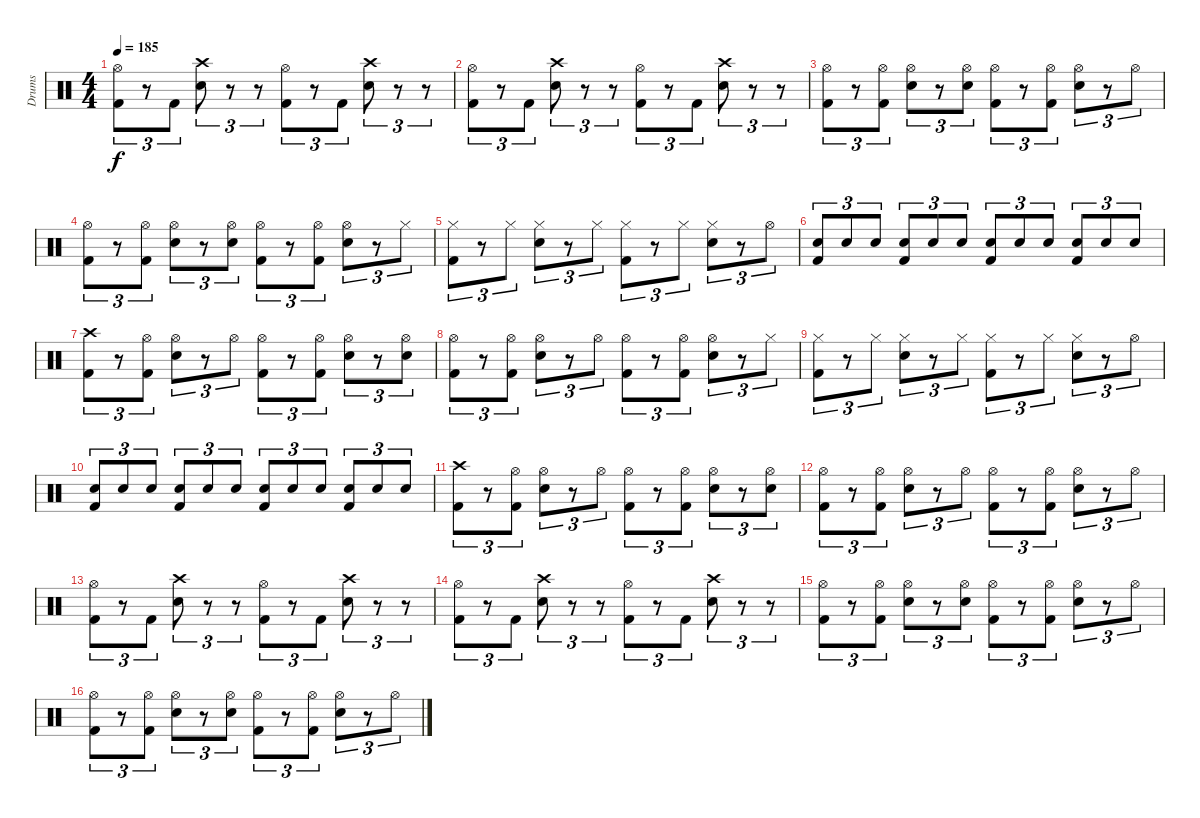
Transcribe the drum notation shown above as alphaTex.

\track ("Drums" "Drums") {instrument percussion}
\staff {score}
\articulation defaults
\ts (4 4)
\tempo 185
\clef neutral
\ks c
("Hi-Hat (open)" "Kick (hit) 2").8{tu (3 2) dy f} r.8{tu (3 2)} "Kick (hit) 2".8{tu (3 2)} ("Crash high (hit)" "Electric Snare (hit)").8{tu (3 2)} r.8{tu (3 2)} r.8{tu (3 2)} ("Hi-Hat (open)" "Kick (hit) 2").8{tu (3 2)} r.8{tu (3 2)} "Kick (hit) 2".8{tu (3 2)} ("Crash high (hit)" "Electric Snare (hit)").8{tu (3 2)} r.8{tu (3 2)} r.8{tu (3 2)} |
("Hi-Hat (open)" "Kick (hit) 2").8{tu (3 2)} r.8{tu (3 2)} "Kick (hit) 2".8{tu (3 2)} ("Crash high (hit)" "Electric Snare (hit)").8{tu (3 2)} r.8{tu (3 2)} r.8{tu (3 2)} ("Hi-Hat (open)" "Kick (hit) 2").8{tu (3 2)} r.8{tu (3 2)} "Kick (hit) 2".8{tu (3 2)} ("Crash high (hit)" "Electric Snare (hit)").8{tu (3 2)} r.8{tu (3 2)} r.8{tu (3 2)} |
("Hi-Hat (open)" "Kick (hit) 2").8{tu (3 2)} r.8{tu (3 2)} ("Hi-Hat (open)" "Kick (hit) 2").8{tu (3 2)} ("Hi-Hat (open)" "Electric Snare (hit)").8{tu (3 2)} r.8{tu (3 2)} ("Hi-Hat (open)" "Electric Snare (hit)").8{tu (3 2)} ("Hi-Hat (open)" "Kick (hit) 2").8{tu (3 2)} r.8{tu (3 2)} ("Hi-Hat (open)" "Kick (hit) 2").8{tu (3 2)} ("Hi-Hat (open)" "Electric Snare (hit)").8{tu (3 2)} r.8{tu (3 2)} "Hi-Hat (open)".8{tu (3 2)} |
("Hi-Hat (open)" "Kick (hit) 2").8{tu (3 2)} r.8{tu (3 2)} ("Hi-Hat (open)" "Kick (hit) 2").8{tu (3 2)} ("Hi-Hat (open)" "Electric Snare (hit)").8{tu (3 2)} r.8{tu (3 2)} ("Hi-Hat (open)" "Electric Snare (hit)").8{tu (3 2)} ("Hi-Hat (open)" "Kick (hit) 2").8{tu (3 2)} r.8{tu (3 2)} ("Hi-Hat (open)" "Kick (hit) 2").8{tu (3 2)} ("Hi-Hat (open)" "Electric Snare (hit)").8{tu (3 2)} r.8{tu (3 2)} "Hi-Hat (closed)".8{tu (3 2)} |
("Hi-Hat (closed)" "Kick (hit) 2").8{tu (3 2)} r.8{tu (3 2)} "Hi-Hat (closed)".8{tu (3 2)} ("Hi-Hat (closed)" "Electric Snare (hit)").8{tu (3 2)} r.8{tu (3 2)} "Hi-Hat (closed)".8{tu (3 2)} ("Hi-Hat (closed)" "Kick (hit) 2").8{tu (3 2)} r.8{tu (3 2)} "Hi-Hat (closed)".8{tu (3 2)} ("Hi-Hat (closed)" "Electric Snare (hit)").8{tu (3 2)} r.8{tu (3 2)} "Hi-Hat (open)".8{tu (3 2)} |
("Electric Snare (hit)" "Kick (hit) 2").8{tu (3 2)} "Electric Snare (hit)".8{tu (3 2)} "Electric Snare (hit)".8{tu (3 2)} ("Electric Snare (hit)" "Kick (hit) 2").8{tu (3 2)} "Electric Snare (hit)".8{tu (3 2)} "Electric Snare (hit)".8{tu (3 2)} ("Electric Snare (hit)" "Kick (hit) 2").8{tu (3 2)} "Electric Snare (hit)".8{tu (3 2)} "Electric Snare (hit)".8{tu (3 2)} ("Electric Snare (hit)" "Kick (hit) 2").8{tu (3 2)} "Electric Snare (hit)".8{tu (3 2)} "Electric Snare (hit)".8{tu (3 2)} |
("Crash high (hit)" "Kick (hit) 2").8{tu (3 2)} r.8{tu (3 2)} ("Hi-Hat (open)" "Kick (hit) 2").8{tu (3 2)} ("Hi-Hat (open)" "Electric Snare (hit)").8{tu (3 2)} r.8{tu (3 2)} "Hi-Hat (open)".8{tu (3 2)} ("Hi-Hat (open)" "Kick (hit) 2").8{tu (3 2)} r.8{tu (3 2)} ("Hi-Hat (open)" "Kick (hit) 2").8{tu (3 2)} ("Hi-Hat (open)" "Electric Snare (hit)").8{tu (3 2)} r.8{tu (3 2)} ("Hi-Hat (open)" "Electric Snare (hit)").8{tu (3 2)} |
("Hi-Hat (open)" "Kick (hit) 2").8{tu (3 2)} r.8{tu (3 2)} ("Hi-Hat (open)" "Kick (hit) 2").8{tu (3 2)} ("Hi-Hat (open)" "Electric Snare (hit)").8{tu (3 2)} r.8{tu (3 2)} "Hi-Hat (open)".8{tu (3 2)} ("Hi-Hat (open)" "Kick (hit) 2").8{tu (3 2)} r.8{tu (3 2)} ("Hi-Hat (open)" "Kick (hit) 2").8{tu (3 2)} ("Hi-Hat (open)" "Electric Snare (hit)").8{tu (3 2)} r.8{tu (3 2)} "Hi-Hat (closed)".8{tu (3 2)} |
("Hi-Hat (closed)" "Kick (hit) 2").8{tu (3 2)} r.8{tu (3 2)} "Hi-Hat (closed)".8{tu (3 2)} ("Hi-Hat (closed)" "Electric Snare (hit)").8{tu (3 2)} r.8{tu (3 2)} "Hi-Hat (closed)".8{tu (3 2)} ("Hi-Hat (closed)" "Kick (hit) 2").8{tu (3 2)} r.8{tu (3 2)} "Hi-Hat (closed)".8{tu (3 2)} ("Hi-Hat (closed)" "Electric Snare (hit)").8{tu (3 2)} r.8{tu (3 2)} "Hi-Hat (open)".8{tu (3 2)} |
("Electric Snare (hit)" "Kick (hit) 2").8{tu (3 2)} "Electric Snare (hit)".8{tu (3 2)} "Electric Snare (hit)".8{tu (3 2)} ("Electric Snare (hit)" "Kick (hit) 2").8{tu (3 2)} "Electric Snare (hit)".8{tu (3 2)} "Electric Snare (hit)".8{tu (3 2)} ("Electric Snare (hit)" "Kick (hit) 2").8{tu (3 2)} "Electric Snare (hit)".8{tu (3 2)} "Electric Snare (hit)".8{tu (3 2)} ("Electric Snare (hit)" "Kick (hit) 2").8{tu (3 2)} "Electric Snare (hit)".8{tu (3 2)} "Electric Snare (hit)".8{tu (3 2)} |
("Crash high (hit)" "Kick (hit) 2").8{tu (3 2)} r.8{tu (3 2)} ("Hi-Hat (open)" "Kick (hit) 2").8{tu (3 2)} ("Hi-Hat (open)" "Electric Snare (hit)").8{tu (3 2)} r.8{tu (3 2)} "Hi-Hat (open)".8{tu (3 2)} ("Hi-Hat (open)" "Kick (hit) 2").8{tu (3 2)} r.8{tu (3 2)} ("Hi-Hat (open)" "Kick (hit) 2").8{tu (3 2)} ("Hi-Hat (open)" "Electric Snare (hit)").8{tu (3 2)} r.8{tu (3 2)} ("Hi-Hat (open)" "Electric Snare (hit)").8{tu (3 2)} |
("Hi-Hat (open)" "Kick (hit) 2").8{tu (3 2)} r.8{tu (3 2)} ("Hi-Hat (open)" "Kick (hit) 2").8{tu (3 2)} ("Hi-Hat (open)" "Electric Snare (hit)").8{tu (3 2)} r.8{tu (3 2)} "Hi-Hat (open)".8{tu (3 2)} ("Hi-Hat (open)" "Kick (hit) 2").8{tu (3 2)} r.8{tu (3 2)} ("Hi-Hat (open)" "Kick (hit) 2").8{tu (3 2)} ("Hi-Hat (open)" "Electric Snare (hit)").8{tu (3 2)} r.8{tu (3 2)} "Hi-Hat (open)".8{tu (3 2)} |
("Hi-Hat (open)" "Kick (hit) 2").8{tu (3 2)} r.8{tu (3 2)} "Kick (hit) 2".8{tu (3 2)} ("Crash high (hit)" "Electric Snare (hit)").8{tu (3 2)} r.8{tu (3 2)} r.8{tu (3 2)} ("Hi-Hat (open)" "Kick (hit) 2").8{tu (3 2)} r.8{tu (3 2)} "Kick (hit) 2".8{tu (3 2)} ("Crash high (hit)" "Electric Snare (hit)").8{tu (3 2)} r.8{tu (3 2)} r.8{tu (3 2)} |
("Hi-Hat (open)" "Kick (hit) 2").8{tu (3 2)} r.8{tu (3 2)} "Kick (hit) 2".8{tu (3 2)} ("Crash high (hit)" "Electric Snare (hit)").8{tu (3 2)} r.8{tu (3 2)} r.8{tu (3 2)} ("Hi-Hat (open)" "Kick (hit) 2").8{tu (3 2)} r.8{tu (3 2)} "Kick (hit) 2".8{tu (3 2)} ("Crash high (hit)" "Electric Snare (hit)").8{tu (3 2)} r.8{tu (3 2)} r.8{tu (3 2)} |
("Hi-Hat (open)" "Kick (hit) 2").8{tu (3 2)} r.8{tu (3 2)} ("Hi-Hat (open)" "Kick (hit) 2").8{tu (3 2)} ("Hi-Hat (open)" "Electric Snare (hit)").8{tu (3 2)} r.8{tu (3 2)} ("Hi-Hat (open)" "Electric Snare (hit)").8{tu (3 2)} ("Hi-Hat (open)" "Kick (hit) 2").8{tu (3 2)} r.8{tu (3 2)} ("Hi-Hat (open)" "Kick (hit) 2").8{tu (3 2)} ("Hi-Hat (open)" "Electric Snare (hit)").8{tu (3 2)} r.8{tu (3 2)} "Hi-Hat (open)".8{tu (3 2)} |
("Hi-Hat (open)" "Kick (hit) 2").8{tu (3 2)} r.8{tu (3 2)} ("Hi-Hat (open)" "Kick (hit) 2").8{tu (3 2)} ("Hi-Hat (open)" "Electric Snare (hit)").8{tu (3 2)} r.8{tu (3 2)} ("Hi-Hat (open)" "Electric Snare (hit)").8{tu (3 2)} ("Hi-Hat (open)" "Kick (hit) 2").8{tu (3 2)} r.8{tu (3 2)} ("Hi-Hat (open)" "Kick (hit) 2").8{tu (3 2)} ("Hi-Hat (open)" "Electric Snare (hit)").8{tu (3 2)} r.8{tu (3 2)} "Hi-Hat (open)".8{tu (3 2)}
